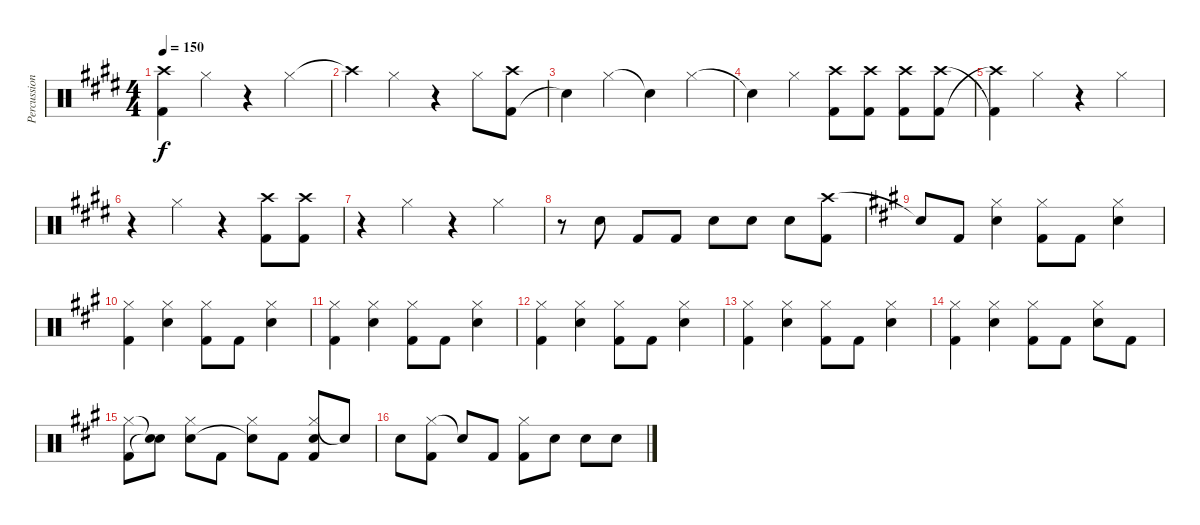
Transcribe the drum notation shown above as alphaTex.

\track ("Percussion" "Percussion") {instrument percussion}
\staff {score}
\articulation defaults
\ts (4 4)
\tempo 150
\clef neutral
\ks c#minor
("Kick (hit) 2" "Crash high (hit)").4{dy f} "Hi-Hat (closed)".4 r.4 "Hi-Hat (closed)".4 |
"Crash high (hit)"{t}.4 "Hi-Hat (closed)".4 r.4 "Hi-Hat (closed)".8 ("Kick (hit) 2" "Crash high (hit)").8 |
"Snare (hit)"{t}.4 "Hi-Hat (closed)".4 "Snare (hit)"{t}.4 "Hi-Hat (closed)".4 |
"Snare (hit)"{t}.4 "Hi-Hat (closed)".4 ("Crash high (hit)" "Kick (hit) 2").8 ("Crash high (hit)" "Kick (hit) 2").8 ("Crash high (hit)" "Kick (hit) 2").8 ("Crash high (hit)" "Kick (hit) 2").8 |
("Kick (hit) 2"{t} "Crash high (hit)"{t}).4 "Hi-Hat (closed)".4 r.4 "Hi-Hat (closed)".4 |
r.4 "Hi-Hat (closed)".4 r.4 ("Crash high (hit)" "Kick (hit) 2").8 ("Crash high (hit)" "Kick (hit) 2").8 |
r.4 "Hi-Hat (closed)".4 r.4 "Hi-Hat (closed)".4 |
r.8 "Snare (hit) 2".8 "Kick (hit) 2".8 "Kick (hit) 2".8 "Snare (hit) 2".8 "Snare (hit) 2".8 "Snare (hit) 2".8 ("Crash high (hit)" "Kick (hit) 2").8 |
\ks f#minor "Snare (hit)"{t}.8 "Kick (hit) 2".8
("Hi-Hat (closed)" "Snare (hit) 2").4 ("Hi-Hat (closed)" "Kick (hit) 2").8 "Kick (hit) 2".8 ("Hi-Hat (closed)" "Snare (hit) 2").4 |
("Hi-Hat (closed)" "Kick (hit) 2").4 ("Hi-Hat (closed)" "Snare (hit) 2").4 ("Hi-Hat (closed)" "Kick (hit) 2").8 "Kick (hit) 2".8 ("Hi-Hat (closed)" "Snare (hit) 2").4 |
("Hi-Hat (closed)" "Kick (hit) 2").4 ("Hi-Hat (closed)" "Snare (hit) 2").4 ("Hi-Hat (closed)" "Kick (hit) 2").8 "Kick (hit) 2".8 ("Hi-Hat (closed)" "Snare (hit) 2").4 |
("Hi-Hat (closed)" "Kick (hit) 2").4 ("Hi-Hat (closed)" "Snare (hit) 2").4 ("Hi-Hat (closed)" "Kick (hit) 2").8 "Kick (hit) 2".8 ("Hi-Hat (closed)" "Snare (hit) 2").4 |
("Hi-Hat (closed)" "Kick (hit) 2").4 ("Hi-Hat (closed)" "Snare (hit) 2").4 ("Hi-Hat (closed)" "Kick (hit) 2").8 "Kick (hit) 2".8 ("Hi-Hat (closed)" "Snare (hit) 2").4 |
("Hi-Hat (closed)" "Kick (hit) 2").4 ("Hi-Hat (closed)" "Snare (hit) 2").4 ("Hi-Hat (closed)" "Kick (hit) 2").8 "Kick (hit) 2".8 ("Hi-Hat (closed)" "Snare (hit) 2").8 "Kick (hit) 2".8 |
("Hi-Hat (closed)" "Kick (hit) 2").8 ("Snare (hit)"{t} "Snare (hit)"{t}).8 ("Hi-Hat (closed)" "Snare (hit) 2").8 "Kick (hit) 2".8 ("Hi-Hat (closed)" "Snare (hit)"{t}).8 "Kick (hit) 2".8 ("Hi-Hat (closed)" "Snare (hit) 2" "Kick (hit) 2").8 "Snare (hit)"{t}.8 |
"Snare (hit) 2".8 ("Hi-Hat (closed)" "Kick (hit) 2").8 "Snare (hit)"{t}.8 "Kick (hit) 2".8 ("Hi-Hat (closed)" "Kick (hit) 2").8 "Snare (hit) 2".8 "Snare (hit) 2".8 "Snare (hit) 2".8
